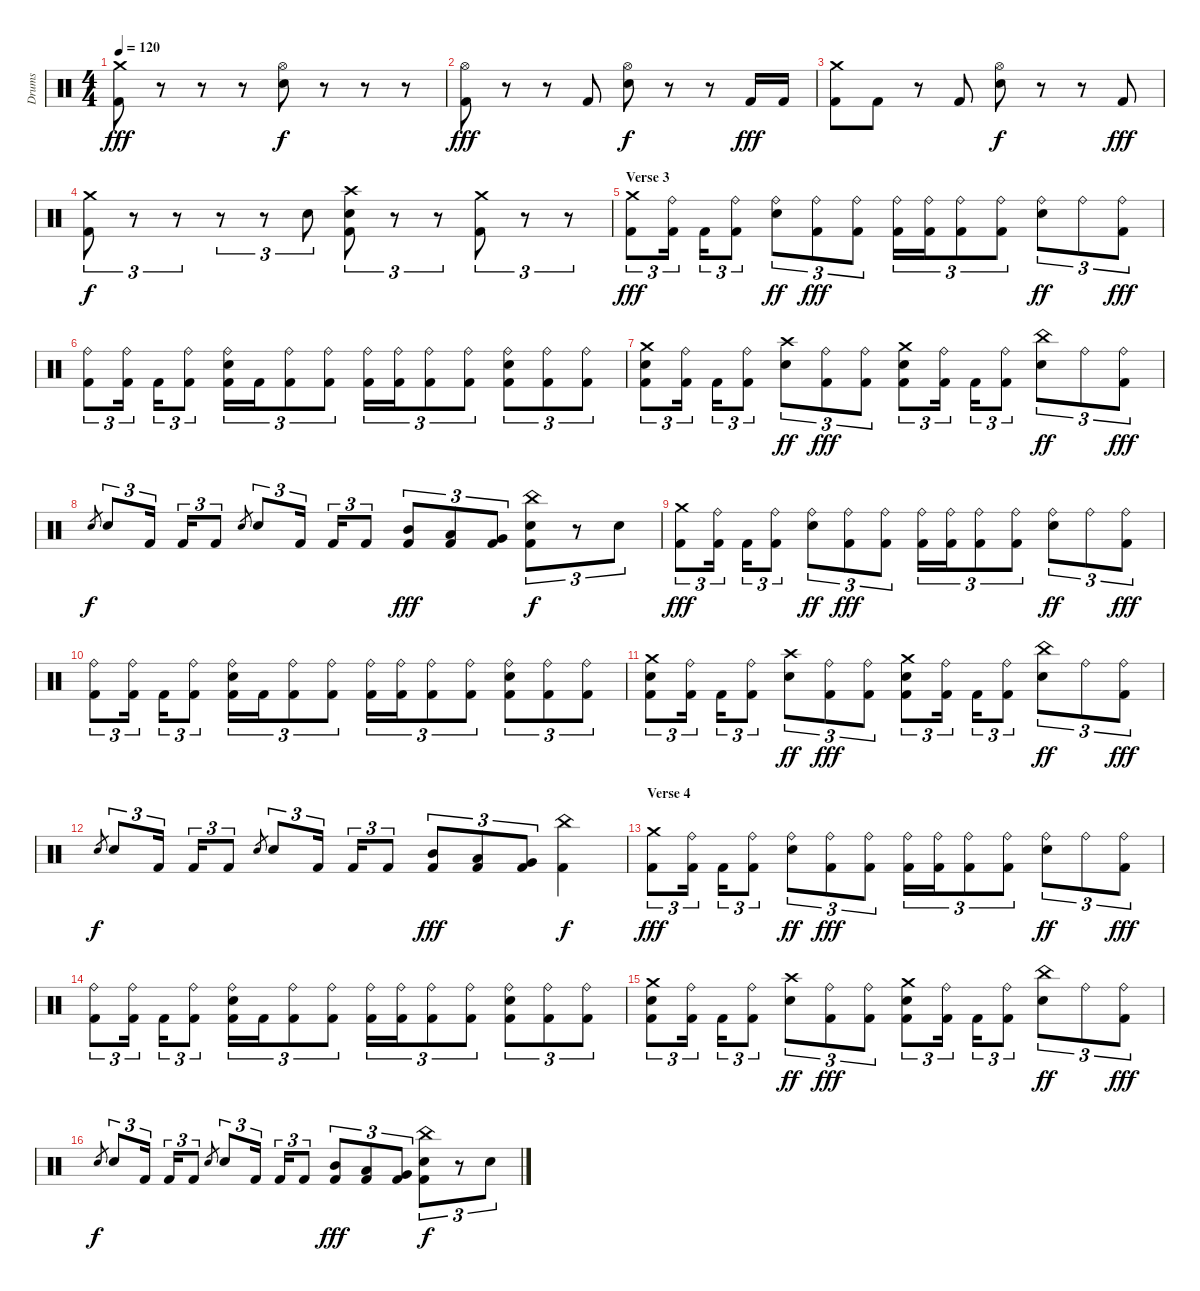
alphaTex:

\track ("Drums" "Drums") {instrument percussion}
\staff {score}
\articulation defaults
\ts (4 4)
\tempo 120
\clef neutral
\ks c
("Crash medium (hit)" "Kick (hit) 2").8{dy fff} r.8 r.8 r.8 ("Hi-Hat (open)" "Snare (hit) 2").8{dy f} r.8 r.8 r.8 |
("Hi-Hat (open)" "Kick (hit) 2").8{dy fff} r.8 r.8 "Kick (hit) 2".8 ("Hi-Hat (open)" "Snare (hit) 2").8{dy f} r.8 r.8 "Kick (hit) 2".16{dy fff} "Kick (hit) 2".16 |
("Crash medium (hit)" "Kick (hit) 2").8 "Kick (hit) 2".8 r.8 "Kick (hit) 2".8 ("Hi-Hat (open)" "Snare (hit) 2").8{dy f} r.8 r.8 "Kick (hit) 2".8{dy fff} |
("Crash medium (hit)" "Kick (hit) 2").8{tu (3 2) dy f} r.8{tu (3 2)} r.8{tu (3 2)} r.8{tu (3 2)} r.8{tu (3 2)} "Snare (hit) 2".8{tu (3 2)} ("Crash high (hit)" "Snare (hit) 2" "Kick (hit) 2").8{tu (3 2)} r.8{tu (3 2)} r.8{tu (3 2)} ("Crash medium (hit)" "Kick (hit) 2").8{tu (3 2)} r.8{tu (3 2)} r.8{tu (3 2)} |
\section ("" "Verse 3")
("Crash medium (hit)" "Kick (hit) 2").8{tu (3 2) dy fff} ("Ride (bell)" "Kick (hit) 2").16{tu (3 2)} "Kick (hit) 2".16{tu (3 2)} ("Ride (bell)" "Kick (hit) 2").8{tu (3 2)} ("Ride (bell)" "Snare (hit) 2").8{tu (3 2) dy ff} ("Ride (bell)" "Kick (hit) 2").8{tu (3 2) dy fff} ("Ride (bell)" "Kick (hit) 2").8{tu (3 2)} ("Ride (bell)" "Kick (hit) 2").16{tu (3 2)} ("Ride (bell)" "Kick (hit) 2").16{tu (3 2)} ("Ride (bell)" "Kick (hit) 2").8{tu (3 2)} ("Ride (bell)" "Kick (hit) 2").8{tu (3 2)} ("Ride (bell)" "Snare (hit) 2").8{tu (3 2) dy ff} "Ride (bell)".8{tu (3 2)} ("Ride (bell)" "Kick (hit) 2").8{tu (3 2) dy fff} |
("Ride (bell)" "Kick (hit) 2").8{tu (3 2)} ("Ride (bell)" "Kick (hit) 2").16{tu (3 2)} "Kick (hit) 2".16{tu (3 2)} ("Ride (bell)" "Kick (hit) 2").8{tu (3 2)} ("Ride (bell)" "Snare (hit) 2" "Kick (hit) 2").16{tu (3 2)} "Kick (hit) 2".16{tu (3 2)} ("Ride (bell)" "Kick (hit) 2").8{tu (3 2)} ("Ride (bell)" "Kick (hit) 2").8{tu (3 2)} ("Ride (bell)" "Kick (hit) 2").16{tu (3 2)} ("Ride (bell)" "Kick (hit) 2").16{tu (3 2)} ("Ride (bell)" "Kick (hit) 2").8{tu (3 2)} ("Ride (bell)" "Kick (hit) 2").8{tu (3 2)} ("Ride (bell)" "Snare (hit) 2" "Kick (hit) 2").8{tu (3 2)} ("Ride (bell)" "Kick (hit) 2").8{tu (3 2)} ("Ride (bell)" "Kick (hit) 2").8{tu (3 2)} |
("Crash medium (hit)" "Snare (hit) 2" "Kick (hit) 2").8{tu (3 2)} ("Ride (bell)" "Kick (hit) 2").16{tu (3 2)} "Kick (hit) 2".16{tu (3 2)} ("Ride (bell)" "Kick (hit) 2").8{tu (3 2)} ("Crash high (hit)" "Snare (hit) 2").8{tu (3 2) dy ff} ("Ride (bell)" "Kick (hit) 2").8{tu (3 2) dy fff} ("Ride (bell)" "Kick (hit) 2").8{tu (3 2)} ("Crash medium (hit)" "Snare (hit) 2" "Kick (hit) 2").8{tu (3 2)} ("Ride (bell)" "Kick (hit) 2").16{tu (3 2)} "Kick (hit) 2".16{tu (3 2)} ("Ride (bell)" "Kick (hit) 2").8{tu (3 2)} ("China (hit)" "Snare (hit) 2").8{tu (3 2) dy ff} "Ride (bell)".8{tu (3 2)} ("Ride (bell)" "Kick (hit) 2").8{tu (3 2) dy fff} |
"Snare (hit) 2".8{gr dy f} "Snare (hit) 2".8{tu (3 2)} "Kick (hit) 2".16{tu (3 2)} "Kick (hit) 2".16{tu (3 2)} "Kick (hit) 2".8{tu (3 2)} "Snare (hit) 2".8{gr} "Snare (hit) 2".8{tu (3 2)} "Kick (hit) 2".16{tu (3 2)} "Kick (hit) 2".16{tu (3 2)} "Kick (hit) 2".8{tu (3 2)} ("Mid Tom (hit)" "Kick (hit) 2").8{tu (3 2) dy fff} ("Low Tom (hit)" "Kick (hit) 2").8{tu (3 2)} ("Very Low Tom (hit)" "Kick (hit) 2").8{tu (3 2)} ("China (hit)" "Snare (hit) 2" "Kick (hit) 2").8{tu (3 2) dy f} r.8{tu (3 2)} "Snare (hit) 2".8{tu (3 2)} |
("Crash medium (hit)" "Kick (hit) 2").8{tu (3 2) dy fff} ("Ride (bell)" "Kick (hit) 2").16{tu (3 2)} "Kick (hit) 2".16{tu (3 2)} ("Ride (bell)" "Kick (hit) 2").8{tu (3 2)} ("Ride (bell)" "Snare (hit) 2").8{tu (3 2) dy ff} ("Ride (bell)" "Kick (hit) 2").8{tu (3 2) dy fff} ("Ride (bell)" "Kick (hit) 2").8{tu (3 2)} ("Ride (bell)" "Kick (hit) 2").16{tu (3 2)} ("Ride (bell)" "Kick (hit) 2").16{tu (3 2)} ("Ride (bell)" "Kick (hit) 2").8{tu (3 2)} ("Ride (bell)" "Kick (hit) 2").8{tu (3 2)} ("Ride (bell)" "Snare (hit) 2").8{tu (3 2) dy ff} "Ride (bell)".8{tu (3 2)} ("Ride (bell)" "Kick (hit) 2").8{tu (3 2) dy fff} |
("Ride (bell)" "Kick (hit) 2").8{tu (3 2)} ("Ride (bell)" "Kick (hit) 2").16{tu (3 2)} "Kick (hit) 2".16{tu (3 2)} ("Ride (bell)" "Kick (hit) 2").8{tu (3 2)} ("Ride (bell)" "Snare (hit) 2" "Kick (hit) 2").16{tu (3 2)} "Kick (hit) 2".16{tu (3 2)} ("Ride (bell)" "Kick (hit) 2").8{tu (3 2)} ("Ride (bell)" "Kick (hit) 2").8{tu (3 2)} ("Ride (bell)" "Kick (hit) 2").16{tu (3 2)} ("Ride (bell)" "Kick (hit) 2").16{tu (3 2)} ("Ride (bell)" "Kick (hit) 2").8{tu (3 2)} ("Ride (bell)" "Kick (hit) 2").8{tu (3 2)} ("Ride (bell)" "Snare (hit) 2" "Kick (hit) 2").8{tu (3 2)} ("Ride (bell)" "Kick (hit) 2").8{tu (3 2)} ("Ride (bell)" "Kick (hit) 2").8{tu (3 2)} |
("Crash medium (hit)" "Snare (hit) 2" "Kick (hit) 2").8{tu (3 2)} ("Ride (bell)" "Kick (hit) 2").16{tu (3 2)} "Kick (hit) 2".16{tu (3 2)} ("Ride (bell)" "Kick (hit) 2").8{tu (3 2)} ("Crash high (hit)" "Snare (hit) 2").8{tu (3 2) dy ff} ("Ride (bell)" "Kick (hit) 2").8{tu (3 2) dy fff} ("Ride (bell)" "Kick (hit) 2").8{tu (3 2)} ("Crash medium (hit)" "Snare (hit) 2" "Kick (hit) 2").8{tu (3 2)} ("Ride (bell)" "Kick (hit) 2").16{tu (3 2)} "Kick (hit) 2".16{tu (3 2)} ("Ride (bell)" "Kick (hit) 2").8{tu (3 2)} ("China (hit)" "Snare (hit) 2").8{tu (3 2) dy ff} "Ride (bell)".8{tu (3 2)} ("Ride (bell)" "Kick (hit) 2").8{tu (3 2) dy fff} |
"Snare (hit) 2".8{gr dy f} "Snare (hit) 2".8{tu (3 2)} "Kick (hit) 2".16{tu (3 2)} "Kick (hit) 2".16{tu (3 2)} "Kick (hit) 2".8{tu (3 2)} "Snare (hit) 2".8{gr} "Snare (hit) 2".8{tu (3 2)} "Kick (hit) 2".16{tu (3 2)} "Kick (hit) 2".16{tu (3 2)} "Kick (hit) 2".8{tu (3 2)} ("Mid Tom (hit)" "Kick (hit) 2").8{tu (3 2) dy fff} ("Low Tom (hit)" "Kick (hit) 2").8{tu (3 2)} ("Very Low Tom (hit)" "Kick (hit) 2").8{tu (3 2)} ("China (hit)" "Kick (hit) 2").4{dy f} |
\section ("" "Verse 4")
("Crash medium (hit)" "Kick (hit) 2").8{tu (3 2) dy fff} ("Ride (bell)" "Kick (hit) 2").16{tu (3 2)} "Kick (hit) 2".16{tu (3 2)} ("Ride (bell)" "Kick (hit) 2").8{tu (3 2)} ("Ride (bell)" "Snare (hit) 2").8{tu (3 2) dy ff} ("Ride (bell)" "Kick (hit) 2").8{tu (3 2) dy fff} ("Ride (bell)" "Kick (hit) 2").8{tu (3 2)} ("Ride (bell)" "Kick (hit) 2").16{tu (3 2)} ("Ride (bell)" "Kick (hit) 2").16{tu (3 2)} ("Ride (bell)" "Kick (hit) 2").8{tu (3 2)} ("Ride (bell)" "Kick (hit) 2").8{tu (3 2)} ("Ride (bell)" "Snare (hit) 2").8{tu (3 2) dy ff} "Ride (bell)".8{tu (3 2)} ("Ride (bell)" "Kick (hit) 2").8{tu (3 2) dy fff} |
("Ride (bell)" "Kick (hit) 2").8{tu (3 2)} ("Ride (bell)" "Kick (hit) 2").16{tu (3 2)} "Kick (hit) 2".16{tu (3 2)} ("Ride (bell)" "Kick (hit) 2").8{tu (3 2)} ("Ride (bell)" "Snare (hit) 2" "Kick (hit) 2").16{tu (3 2)} "Kick (hit) 2".16{tu (3 2)} ("Ride (bell)" "Kick (hit) 2").8{tu (3 2)} ("Ride (bell)" "Kick (hit) 2").8{tu (3 2)} ("Ride (bell)" "Kick (hit) 2").16{tu (3 2)} ("Ride (bell)" "Kick (hit) 2").16{tu (3 2)} ("Ride (bell)" "Kick (hit) 2").8{tu (3 2)} ("Ride (bell)" "Kick (hit) 2").8{tu (3 2)} ("Ride (bell)" "Snare (hit) 2" "Kick (hit) 2").8{tu (3 2)} ("Ride (bell)" "Kick (hit) 2").8{tu (3 2)} ("Ride (bell)" "Kick (hit) 2").8{tu (3 2)} |
("Crash medium (hit)" "Snare (hit) 2" "Kick (hit) 2").8{tu (3 2)} ("Ride (bell)" "Kick (hit) 2").16{tu (3 2)} "Kick (hit) 2".16{tu (3 2)} ("Ride (bell)" "Kick (hit) 2").8{tu (3 2)} ("Crash high (hit)" "Snare (hit) 2").8{tu (3 2) dy ff} ("Ride (bell)" "Kick (hit) 2").8{tu (3 2) dy fff} ("Ride (bell)" "Kick (hit) 2").8{tu (3 2)} ("Crash medium (hit)" "Snare (hit) 2" "Kick (hit) 2").8{tu (3 2)} ("Ride (bell)" "Kick (hit) 2").16{tu (3 2)} "Kick (hit) 2".16{tu (3 2)} ("Ride (bell)" "Kick (hit) 2").8{tu (3 2)} ("China (hit)" "Snare (hit) 2").8{tu (3 2) dy ff} "Ride (bell)".8{tu (3 2)} ("Ride (bell)" "Kick (hit) 2").8{tu (3 2) dy fff} |
"Snare (hit) 2".8{gr dy f} "Snare (hit) 2".8{tu (3 2)} "Kick (hit) 2".16{tu (3 2)} "Kick (hit) 2".16{tu (3 2)} "Kick (hit) 2".8{tu (3 2)} "Snare (hit) 2".8{gr} "Snare (hit) 2".8{tu (3 2)} "Kick (hit) 2".16{tu (3 2)} "Kick (hit) 2".16{tu (3 2)} "Kick (hit) 2".8{tu (3 2)} ("Mid Tom (hit)" "Kick (hit) 2").8{tu (3 2) dy fff} ("Low Tom (hit)" "Kick (hit) 2").8{tu (3 2)} ("Very Low Tom (hit)" "Kick (hit) 2").8{tu (3 2)} ("China (hit)" "Snare (hit) 2" "Kick (hit) 2").8{tu (3 2) dy f} r.8{tu (3 2)} "Snare (hit) 2".8{tu (3 2)}
